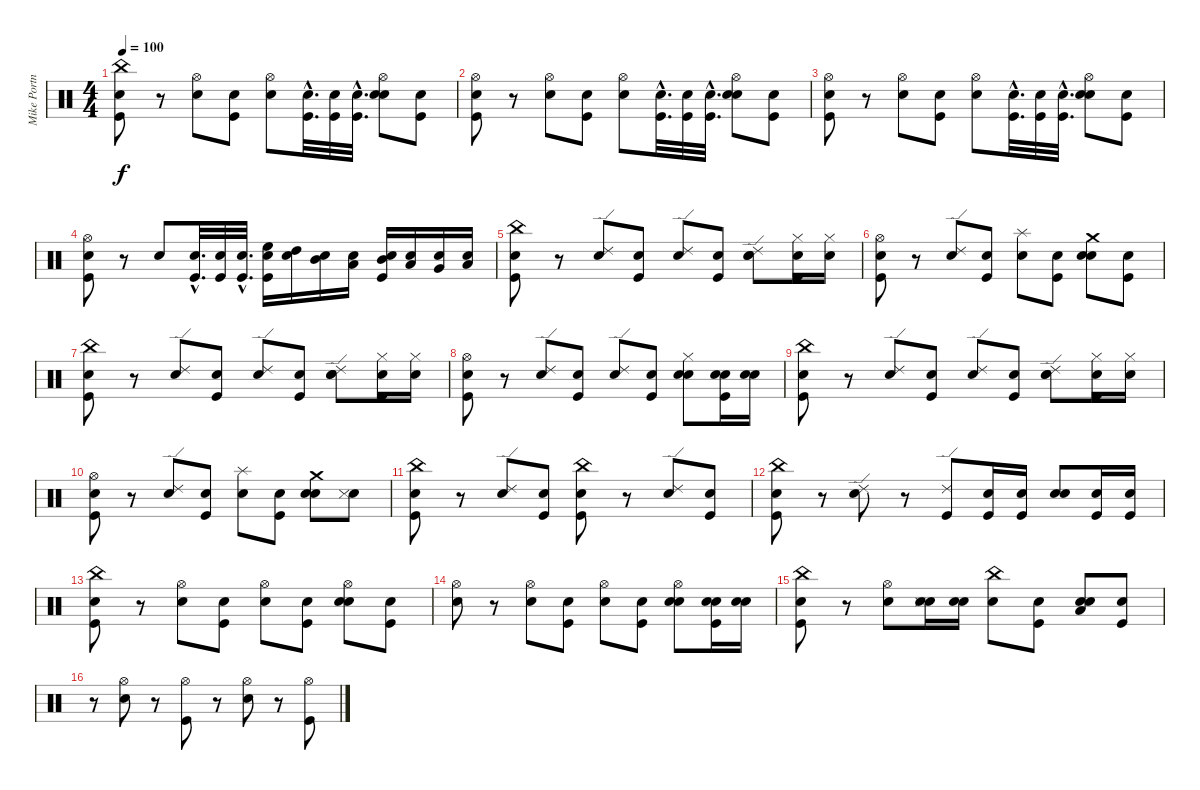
\track ("Mike Portnoy - Drum" "Mike Portn") {instrument percussion}
\staff {score}
\articulation defaults
\ts (4 4)
\tempo 100
\clef neutral
\ks c
("Snare (hit)" "Kick (hit)" "China (hit)").8{dy f} r.8 ("Snare (hit) 2" "Hi-Hat (open)").8 ("Snare (hit)" "Kick (hit)").8 ("Snare (hit)" "Hi-Hat (open)").8 ("Snare (hit)"{hac} "Kick (hit)"{hac}).32{d} ("Snare (hit)" "Kick (hit)").32 ("Snare (hit)"{hac} "Kick (hit)"{hac}).32{d} ("Snare (hit)" "Snare (hit) 2" "Hi-Hat (open)").8 ("Snare (hit)" "Kick (hit)").8 |
("Snare (hit)" "Kick (hit)" "Hi-Hat (open)").8 r.8 ("Snare (hit) 2" "Hi-Hat (open)").8 ("Snare (hit)" "Kick (hit)").8 ("Snare (hit)" "Hi-Hat (open)").8 ("Snare (hit)"{hac} "Kick (hit)"{hac}).32{d} ("Snare (hit)" "Kick (hit)").32 ("Snare (hit)"{hac} "Kick (hit)"{hac}).32{d} ("Snare (hit)" "Snare (hit) 2" "Hi-Hat (open)").8 ("Snare (hit)" "Kick (hit)").8 |
("Snare (hit)" "Kick (hit)" "Hi-Hat (open)").8 r.8 ("Snare (hit) 2" "Hi-Hat (open)").8 ("Snare (hit)" "Kick (hit)").8 ("Snare (hit)" "Hi-Hat (open)").8 ("Snare (hit)"{hac} "Kick (hit)"{hac}).32{d} ("Snare (hit)" "Kick (hit)").32 ("Snare (hit)"{hac} "Kick (hit)"{hac}).32{d} ("Snare (hit)" "Snare (hit) 2" "Hi-Hat (open)").8 ("Snare (hit)" "Kick (hit)").8 |
("Snare (hit)" "Kick (hit)" "Hi-Hat (open)").8 r.8 "Snare (hit) 2".8 ("Snare (hit)"{hac} "Kick (hit)"{hac}).32{d} ("Snare (hit)" "Kick (hit)").32 ("Snare (hit)"{hac} "Kick (hit)"{hac}).32{d} ("Snare (hit)" "Kick (hit)" "High Floor Tom (hit)").16 ("Snare (hit)" "High Tom (hit)").16 ("Snare (hit)" "Mid Tom (hit)").16 ("Snare (hit)" "Low Tom (hit)").16 ("Snare (hit)" "Kick (hit)" "Mid Tom (hit)").16 ("Snare (hit)" "Low Tom (hit)").16 ("Snare (hit)" "Very Low Tom (hit)").16 ("Snare (hit)" "Low Floor Tom (hit)").16 |
("Snare (hit)" "Kick (hit)" "China (hit)").8 r.8 ("Snare (hit) 2" "Ride (edge) 2").8 ("Snare (hit)" "Kick (hit)").8 ("Snare (hit)" "Ride (edge) 2").8 ("Snare (hit)" "Kick (hit)").8 ("Snare (hit)" "Snare (hit) 2" "Ride (edge) 2").8 ("Snare (hit)" "Kick (hit)" "Hi-Hat (closed)").16 ("Snare (hit)" "Hi-Hat (closed)").16 |
("Snare (hit)" "Kick (hit)" "Hi-Hat (open)").8 r.8 ("Snare (hit) 2" "Ride (edge) 2").8 ("Snare (hit)" "Kick (hit)").8 ("Snare (hit)" "Splash (hit)").8 ("Snare (hit)" "Kick (hit)").8 ("Snare (hit)" "Snare (hit) 2" "Crash medium (hit)").8 ("Snare (hit)" "Kick (hit)").8 |
("Snare (hit)" "Kick (hit)" "China (hit)").8 r.8 ("Snare (hit) 2" "Ride (edge) 2").8 ("Snare (hit)" "Kick (hit)").8 ("Snare (hit)" "Ride (edge) 2").8 ("Snare (hit)" "Kick (hit)").8 ("Snare (hit)" "Snare (hit) 2" "Ride (edge) 2").8 ("Snare (hit)" "Kick (hit)" "Hi-Hat (closed)").16 ("Snare (hit)" "Hi-Hat (closed)").16 |
("Snare (hit)" "Kick (hit)" "Hi-Hat (open)").8 r.8 ("Snare (hit) 2" "Ride (edge) 2").8 ("Snare (hit)" "Kick (hit)").8 ("Snare (hit)" "Ride (edge) 2").8 ("Snare (hit)" "Kick (hit)").8 ("Snare (hit)" "Snare (hit) 2" "Hi-Hat (closed)").8 ("Snare (hit)" "Kick (hit)" "Snare (hit) 2").16 ("Snare (hit)" "Snare (hit) 2").16 |
("Snare (hit)" "Kick (hit)" "China (hit)").8 r.8 ("Snare (hit) 2" "Ride (edge) 2").8 ("Snare (hit)" "Kick (hit)").8 ("Snare (hit)" "Ride (edge) 2").8 ("Snare (hit)" "Kick (hit)").8 ("Snare (hit)" "Snare (hit) 2" "Ride (edge) 2").8 ("Snare (hit)" "Kick (hit)" "Hi-Hat (closed)").16 ("Snare (hit)" "Hi-Hat (closed)").16 |
("Snare (hit)" "Kick (hit)" "Hi-Hat (open)").8 r.8 ("Snare (hit) 2" "Ride (edge) 2").8 ("Snare (hit)" "Kick (hit)").8 ("Snare (hit)" "Splash (hit)").8 ("Snare (hit)" "Kick (hit)").8 ("Snare (hit)" "Snare (hit) 2" "Crash medium (hit)").8 ("Snare (hit)" "Metronome (hit)").8 |
("Snare (hit)" "Kick (hit)" "China (hit)").8 r.8 ("Snare (hit) 2" "Ride (edge) 2").8 ("Snare (hit)" "Kick (hit)").8 ("Snare (hit)" "Kick (hit)" "China (hit)").8 r.8 ("Snare (hit) 2" "Ride (edge) 2").8 ("Snare (hit)" "Kick (hit)").8 |
("Snare (hit)" "Kick (hit)" "China (hit)").8 r.8 ("Snare (hit) 2" "Ride (edge) 2").8 r.8 ("Kick (hit)" "Ride (edge) 2").8 ("Snare (hit)" "Kick (hit)").16 ("Snare (hit)" "Kick (hit)").16 ("Snare (hit)" "Snare (hit) 2").8 ("Snare (hit)" "Kick (hit)").16 ("Snare (hit)" "Kick (hit)").16 |
("Snare (hit)" "Kick (hit)" "China (hit)").8 r.8 ("Snare (hit) 2" "Hi-Hat (open)").8 ("Snare (hit)" "Kick (hit)").8 ("Snare (hit)" "Hi-Hat (open)").8 ("Snare (hit)" "Kick (hit)").8 ("Snare (hit)" "Snare (hit) 2" "Hi-Hat (open)").8 ("Snare (hit)" "Kick (hit)").8 |
("Snare (hit)" "Hi-Hat (open)").8 r.8 ("Snare (hit) 2" "Hi-Hat (open)").8 ("Snare (hit)" "Kick (hit)").8 ("Snare (hit)" "Hi-Hat (open)").8 ("Snare (hit)" "Kick (hit)").8 ("Snare (hit)" "Snare (hit) 2" "Hi-Hat (open)").8 ("Snare (hit)" "Kick (hit)" "Snare (hit) 2").16 ("Snare (hit)" "Snare (hit) 2").16 |
("Snare (hit)" "Kick (hit)" "China (hit)").8 r.8 ("Snare (hit) 2" "Hi-Hat (open)").8 ("Snare (hit)" "Metronome (hit)" "Snare (hit) 2").16 ("Snare (hit)" "Snare (hit) 2").16 ("Snare (hit)" "China (hit)").8 ("Snare (hit)" "Kick (hit)").8 ("Snare (hit)" "Snare (hit) 2" "Low Tom (hit)").8 ("Snare (hit)" "Kick (hit)").8 |
r.8 ("Snare (hit) 2" "Hi-Hat (open)").8 r.8 ("Kick (hit)" "Hi-Hat (open)").8 r.8 ("Snare (hit) 2" "Hi-Hat (open)").8 r.8 ("Kick (hit)" "Hi-Hat (open)").8
